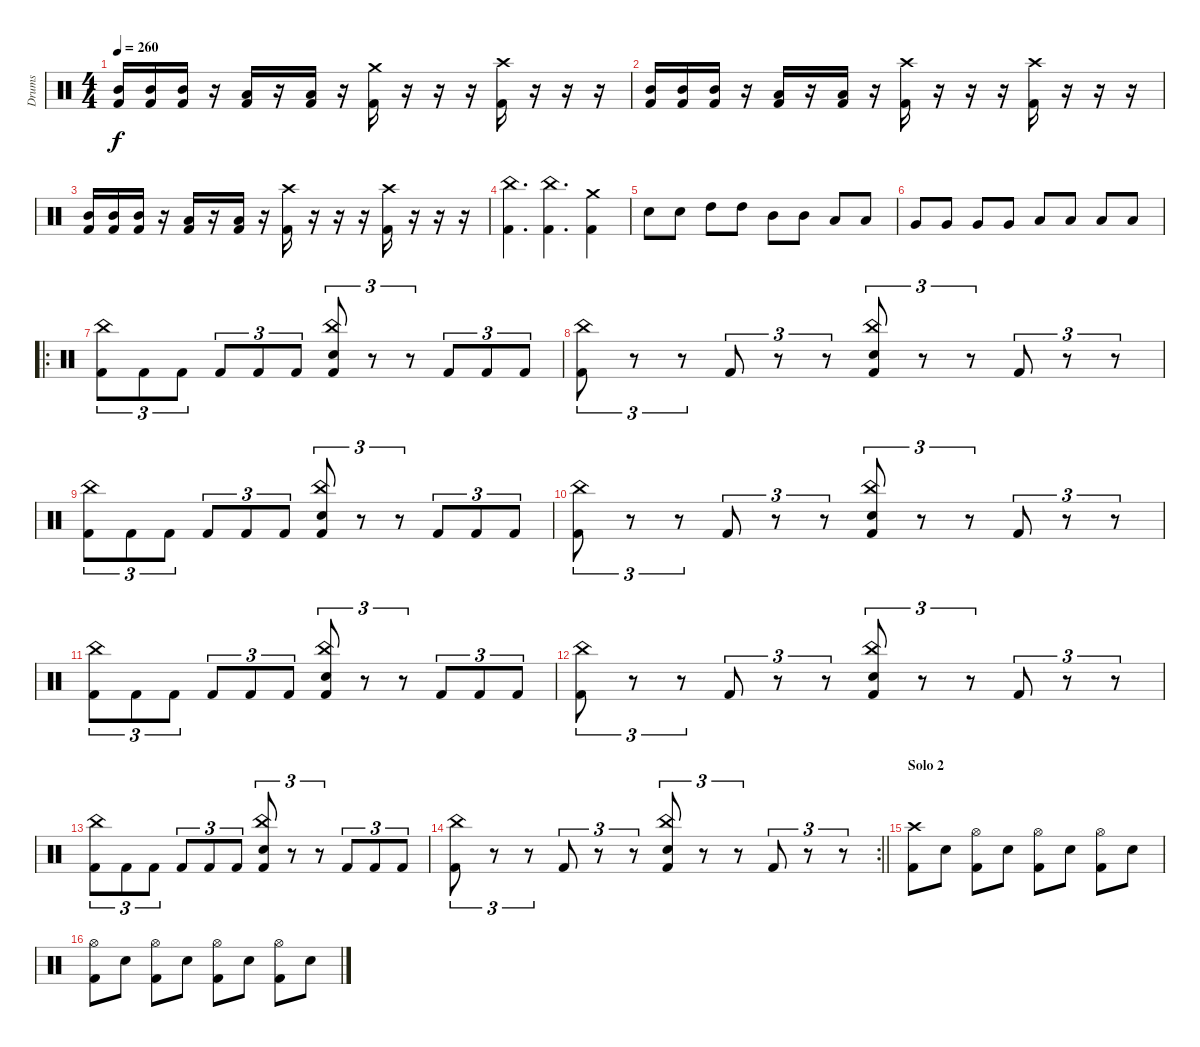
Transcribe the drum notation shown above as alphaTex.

\track ("Drums" "Drums") {instrument percussion}
\staff {score}
\articulation defaults
\ts (4 4)
\tempo 260
\clef neutral
\ks c
("Mid Tom (hit)" "Kick (hit) 2").16{dy f} ("Mid Tom (hit)" "Kick (hit) 2").16 ("Mid Tom (hit)" "Kick (hit) 2").16 r.16 ("Low Tom (hit)" "Kick (hit) 2").16 r.16 ("Low Tom (hit)" "Kick (hit) 2").16 r.16 ("Crash medium (hit)" "Kick (hit) 2").16 r.16 r.16 r.16 ("Crash high (hit)" "Kick (hit) 2").16 r.16 r.16 r.16 |
("Mid Tom (hit)" "Kick (hit) 2").16 ("Mid Tom (hit)" "Kick (hit) 2").16 ("Mid Tom (hit)" "Kick (hit) 2").16 r.16 ("Low Tom (hit)" "Kick (hit) 2").16 r.16 ("Low Tom (hit)" "Kick (hit) 2").16 r.16 ("Crash high (hit)" "Kick (hit) 2").16 r.16 r.16 r.16 ("Crash high (hit)" "Kick (hit) 2").16 r.16 r.16 r.16 |
("Mid Tom (hit)" "Kick (hit) 2").16 ("Mid Tom (hit)" "Kick (hit) 2").16 ("Mid Tom (hit)" "Kick (hit) 2").16 r.16 ("Low Tom (hit)" "Kick (hit) 2").16 r.16 ("Low Tom (hit)" "Kick (hit) 2").16 r.16 ("Crash high (hit)" "Kick (hit) 2").16 r.16 r.16 r.16 ("Crash high (hit)" "Kick (hit) 2").16 r.16 r.16 r.16 |
("China (hit)" "Kick (hit) 2").4{d} ("China (hit)" "Kick (hit) 2").4{d} ("Crash medium (hit)" "Kick (hit) 2").4 |
"Electric Snare (hit)".8 "Electric Snare (hit)".8 "High Tom (hit)".8 "High Tom (hit)".8 "Mid Tom (hit)".8 "Mid Tom (hit)".8 "Low Tom (hit)".8 "Low Tom (hit)".8 |
"Very Low Tom (hit)".8 "Very Low Tom (hit)".8 "Very Low Tom (hit)".8 "Very Low Tom (hit)".8 "Low Floor Tom (hit)".8 "Low Floor Tom (hit)".8 "Low Floor Tom (hit)".8 "Low Floor Tom (hit)".8 |
\ro
("China (hit)" "Kick (hit) 2").8{tu (3 2)} "Kick (hit) 2".8{tu (3 2)} "Kick (hit) 2".8{tu (3 2)} "Kick (hit) 2".8{tu (3 2)} "Kick (hit) 2".8{tu (3 2)} "Kick (hit) 2".8{tu (3 2)} ("China (hit)" "Electric Snare (hit)" "Kick (hit) 2").8{tu (3 2)} r.8{tu (3 2)} r.8{tu (3 2)} "Kick (hit) 2".8{tu (3 2)} "Kick (hit) 2".8{tu (3 2)} "Kick (hit) 2".8{tu (3 2)} |
("China (hit)" "Kick (hit) 2").8{tu (3 2)} r.8{tu (3 2)} r.8{tu (3 2)} "Kick (hit) 2".8{tu (3 2)} r.8{tu (3 2)} r.8{tu (3 2)} ("China (hit)" "Electric Snare (hit)" "Kick (hit) 2").8{tu (3 2)} r.8{tu (3 2)} r.8{tu (3 2)} "Kick (hit) 2".8{tu (3 2)} r.8{tu (3 2)} r.8{tu (3 2)} |
("China (hit)" "Kick (hit) 2").8{tu (3 2)} "Kick (hit) 2".8{tu (3 2)} "Kick (hit) 2".8{tu (3 2)} "Kick (hit) 2".8{tu (3 2)} "Kick (hit) 2".8{tu (3 2)} "Kick (hit) 2".8{tu (3 2)} ("China (hit)" "Electric Snare (hit)" "Kick (hit) 2").8{tu (3 2)} r.8{tu (3 2)} r.8{tu (3 2)} "Kick (hit) 2".8{tu (3 2)} "Kick (hit) 2".8{tu (3 2)} "Kick (hit) 2".8{tu (3 2)} |
("China (hit)" "Kick (hit) 2").8{tu (3 2)} r.8{tu (3 2)} r.8{tu (3 2)} "Kick (hit) 2".8{tu (3 2)} r.8{tu (3 2)} r.8{tu (3 2)} ("China (hit)" "Electric Snare (hit)" "Kick (hit) 2").8{tu (3 2)} r.8{tu (3 2)} r.8{tu (3 2)} "Kick (hit) 2".8{tu (3 2)} r.8{tu (3 2)} r.8{tu (3 2)} |
("China (hit)" "Kick (hit) 2").8{tu (3 2)} "Kick (hit) 2".8{tu (3 2)} "Kick (hit) 2".8{tu (3 2)} "Kick (hit) 2".8{tu (3 2)} "Kick (hit) 2".8{tu (3 2)} "Kick (hit) 2".8{tu (3 2)} ("China (hit)" "Electric Snare (hit)" "Kick (hit) 2").8{tu (3 2)} r.8{tu (3 2)} r.8{tu (3 2)} "Kick (hit) 2".8{tu (3 2)} "Kick (hit) 2".8{tu (3 2)} "Kick (hit) 2".8{tu (3 2)} |
("China (hit)" "Kick (hit) 2").8{tu (3 2)} r.8{tu (3 2)} r.8{tu (3 2)} "Kick (hit) 2".8{tu (3 2)} r.8{tu (3 2)} r.8{tu (3 2)} ("China (hit)" "Electric Snare (hit)" "Kick (hit) 2").8{tu (3 2)} r.8{tu (3 2)} r.8{tu (3 2)} "Kick (hit) 2".8{tu (3 2)} r.8{tu (3 2)} r.8{tu (3 2)} |
("China (hit)" "Kick (hit) 2").8{tu (3 2)} "Kick (hit) 2".8{tu (3 2)} "Kick (hit) 2".8{tu (3 2)} "Kick (hit) 2".8{tu (3 2)} "Kick (hit) 2".8{tu (3 2)} "Kick (hit) 2".8{tu (3 2)} ("China (hit)" "Electric Snare (hit)" "Kick (hit) 2").8{tu (3 2)} r.8{tu (3 2)} r.8{tu (3 2)} "Kick (hit) 2".8{tu (3 2)} "Kick (hit) 2".8{tu (3 2)} "Kick (hit) 2".8{tu (3 2)} |
\rc 2
\barLineRight lightlight
("China (hit)" "Kick (hit) 2").8{tu (3 2)} r.8{tu (3 2)} r.8{tu (3 2)} "Kick (hit) 2".8{tu (3 2)} r.8{tu (3 2)} r.8{tu (3 2)} ("China (hit)" "Electric Snare (hit)" "Kick (hit) 2").8{tu (3 2)} r.8{tu (3 2)} r.8{tu (3 2)} "Kick (hit) 2".8{tu (3 2)} r.8{tu (3 2)} r.8{tu (3 2)} |
\section ("" "Solo 2")
("Crash high (hit)" "Kick (hit) 2").8 "Electric Snare (hit)".8 ("Hi-Hat (open)" "Kick (hit) 2").8 "Electric Snare (hit)".8 ("Hi-Hat (open)" "Kick (hit) 2").8 "Electric Snare (hit)".8 ("Hi-Hat (open)" "Kick (hit) 2").8 "Electric Snare (hit)".8 |
("Hi-Hat (open)" "Kick (hit) 2").8 "Electric Snare (hit)".8 ("Hi-Hat (open)" "Kick (hit) 2").8 "Electric Snare (hit)".8 ("Hi-Hat (open)" "Kick (hit) 2").8 "Electric Snare (hit)".8 ("Hi-Hat (open)" "Kick (hit) 2").8 "Electric Snare (hit)".8
